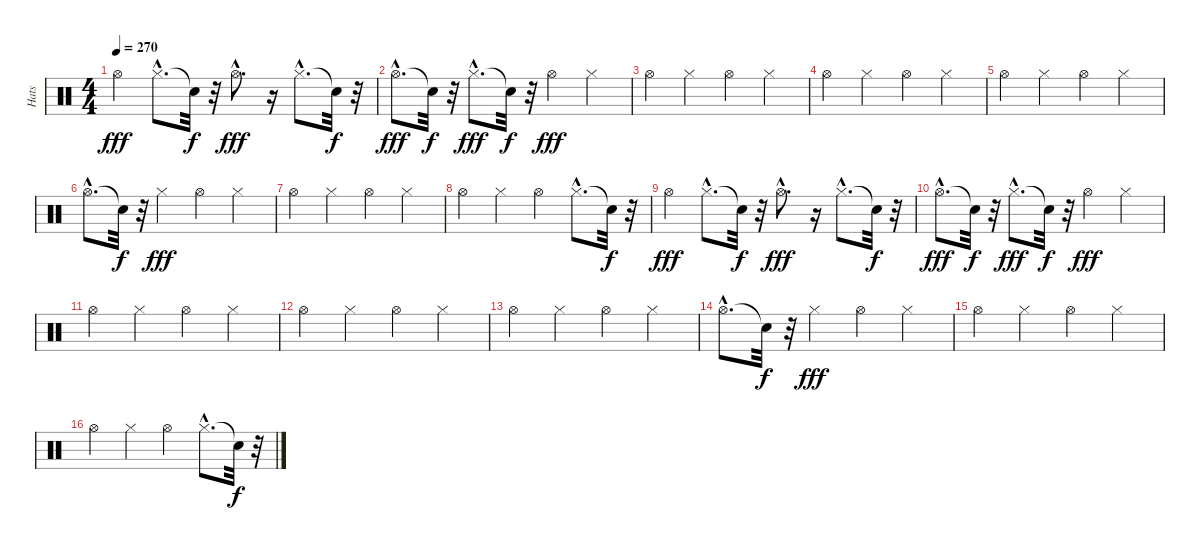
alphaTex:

\track ("Hats" "Hats") {instrument percussion}
\staff {score}
\articulation defaults
\ts (4 4)
\tempo 270
\clef neutral
\ks c "Hi-Hat (open)".4{dy fff} "Hi-Hat (closed)"{hac}.8{d} "Snare (hit)"{t}.32{dy f}
r.32 "Hi-Hat (open)"{hac}.8{d dy fff} r.16 "Hi-Hat (closed)"{hac}.8{d} "Snare (hit)"{t}.32{dy f} r.32 |
"Hi-Hat (open)"{hac}.8{d dy fff} "Snare (hit)"{t}.32{dy f} r.32 "Hi-Hat (closed)"{hac}.8{d dy fff} "Snare (hit)"{t}.32{dy f} r.32 "Hi-Hat (open)".4{dy fff} "Hi-Hat (closed)".4 |
"Hi-Hat (open)".4 "Hi-Hat (closed)".4 "Hi-Hat (open)".4 "Hi-Hat (closed)".4 |
"Hi-Hat (open)".4 "Hi-Hat (closed)".4 "Hi-Hat (open)".4 "Hi-Hat (closed)".4 |
"Hi-Hat (open)".4 "Hi-Hat (closed)".4 "Hi-Hat (open)".4 "Hi-Hat (closed)".4 |
"Hi-Hat (open)"{hac}.8{d} "Snare (hit)"{t}.32{dy f} r.32 "Hi-Hat (closed)".4{dy fff} "Hi-Hat (open)".4 "Hi-Hat (closed)".4 |
"Hi-Hat (open)".4 "Hi-Hat (closed)".4 "Hi-Hat (open)".4 "Hi-Hat (closed)".4 |
"Hi-Hat (open)".4 "Hi-Hat (closed)".4 "Hi-Hat (open)".4 "Hi-Hat (closed)"{hac}.8{d} "Snare (hit)"{t}.32{dy f} r.32 |
"Hi-Hat (open)".4{dy fff} "Hi-Hat (closed)"{hac}.8{d} "Snare (hit)"{t}.32{dy f} r.32 "Hi-Hat (open)"{hac}.8{d dy fff} r.16 "Hi-Hat (closed)"{hac}.8{d} "Snare (hit)"{t}.32{dy f} r.32 |
"Hi-Hat (open)"{hac}.8{d dy fff} "Snare (hit)"{t}.32{dy f} r.32 "Hi-Hat (closed)"{hac}.8{d dy fff} "Snare (hit)"{t}.32{dy f} r.32 "Hi-Hat (open)".4{dy fff} "Hi-Hat (closed)".4 |
"Hi-Hat (open)".4 "Hi-Hat (closed)".4 "Hi-Hat (open)".4 "Hi-Hat (closed)".4 |
"Hi-Hat (open)".4 "Hi-Hat (closed)".4 "Hi-Hat (open)".4 "Hi-Hat (closed)".4 |
"Hi-Hat (open)".4 "Hi-Hat (closed)".4 "Hi-Hat (open)".4 "Hi-Hat (closed)".4 |
"Hi-Hat (open)"{hac}.8{d} "Snare (hit)"{t}.32{dy f} r.32 "Hi-Hat (closed)".4{dy fff} "Hi-Hat (open)".4 "Hi-Hat (closed)".4 |
"Hi-Hat (open)".4 "Hi-Hat (closed)".4 "Hi-Hat (open)".4 "Hi-Hat (closed)".4 |
"Hi-Hat (open)".4 "Hi-Hat (closed)".4 "Hi-Hat (open)".4 "Hi-Hat (closed)"{hac}.8{d} "Snare (hit)"{t}.32{dy f} r.32
